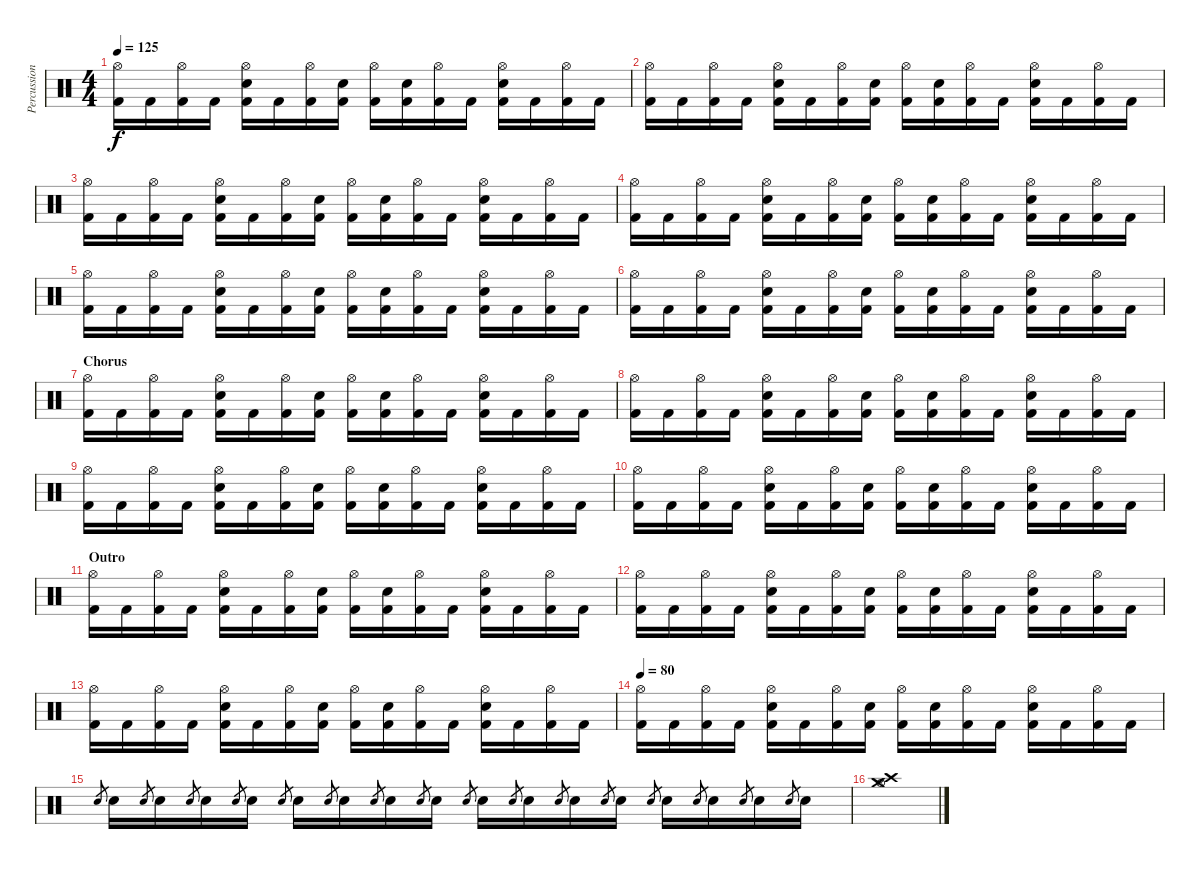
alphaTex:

\track ("Percussion" "Percussion") {instrument percussion}
\staff {score}
\articulation defaults
\ts (4 4)
\tempo 125
\clef neutral
\ks c
("Hi-Hat (open)" "Kick (hit) 2").16{dy f} "Kick (hit) 2".16 ("Hi-Hat (open)" "Kick (hit) 2").16 "Kick (hit) 2".16 ("Hi-Hat (open)" "Electric Snare (hit)" "Kick (hit) 2").16 "Kick (hit) 2".16 ("Hi-Hat (open)" "Kick (hit) 2").16 ("Snare (hit) 2" "Kick (hit) 2").16 ("Hi-Hat (open)" "Kick (hit) 2").16 ("Snare (hit) 2" "Kick (hit) 2").16 ("Hi-Hat (open)" "Kick (hit) 2").16 "Kick (hit) 2".16 ("Hi-Hat (open)" "Electric Snare (hit)" "Kick (hit) 2").16 "Kick (hit) 2".16 ("Hi-Hat (open)" "Kick (hit) 2").16 "Kick (hit) 2".16 |
("Hi-Hat (open)" "Kick (hit) 2").16 "Kick (hit) 2".16 ("Hi-Hat (open)" "Kick (hit) 2").16 "Kick (hit) 2".16 ("Hi-Hat (open)" "Electric Snare (hit)" "Kick (hit) 2").16 "Kick (hit) 2".16 ("Hi-Hat (open)" "Kick (hit) 2").16 ("Snare (hit) 2" "Kick (hit) 2").16 ("Hi-Hat (open)" "Kick (hit) 2").16 ("Snare (hit) 2" "Kick (hit) 2").16 ("Hi-Hat (open)" "Kick (hit) 2").16 "Kick (hit) 2".16 ("Hi-Hat (open)" "Electric Snare (hit)" "Kick (hit) 2").16 "Kick (hit) 2".16 ("Hi-Hat (open)" "Kick (hit) 2").16 "Kick (hit) 2".16 |
("Hi-Hat (open)" "Kick (hit) 2").16 "Kick (hit) 2".16 ("Hi-Hat (open)" "Kick (hit) 2").16 "Kick (hit) 2".16 ("Hi-Hat (open)" "Electric Snare (hit)" "Kick (hit) 2").16 "Kick (hit) 2".16 ("Hi-Hat (open)" "Kick (hit) 2").16 ("Snare (hit) 2" "Kick (hit) 2").16 ("Hi-Hat (open)" "Kick (hit) 2").16 ("Snare (hit) 2" "Kick (hit) 2").16 ("Hi-Hat (open)" "Kick (hit) 2").16 "Kick (hit) 2".16 ("Hi-Hat (open)" "Electric Snare (hit)" "Kick (hit) 2").16 "Kick (hit) 2".16 ("Hi-Hat (open)" "Kick (hit) 2").16 "Kick (hit) 2".16 |
("Hi-Hat (open)" "Kick (hit) 2").16 "Kick (hit) 2".16 ("Hi-Hat (open)" "Kick (hit) 2").16 "Kick (hit) 2".16 ("Hi-Hat (open)" "Electric Snare (hit)" "Kick (hit) 2").16 "Kick (hit) 2".16 ("Hi-Hat (open)" "Kick (hit) 2").16 ("Snare (hit) 2" "Kick (hit) 2").16 ("Hi-Hat (open)" "Kick (hit) 2").16 ("Snare (hit) 2" "Kick (hit) 2").16 ("Hi-Hat (open)" "Kick (hit) 2").16 "Kick (hit) 2".16 ("Hi-Hat (open)" "Electric Snare (hit)" "Kick (hit) 2").16 "Kick (hit) 2".16 ("Hi-Hat (open)" "Kick (hit) 2").16 "Kick (hit) 2".16 |
("Hi-Hat (open)" "Kick (hit) 2").16 "Kick (hit) 2".16 ("Hi-Hat (open)" "Kick (hit) 2").16 "Kick (hit) 2".16 ("Hi-Hat (open)" "Electric Snare (hit)" "Kick (hit) 2").16 "Kick (hit) 2".16 ("Hi-Hat (open)" "Kick (hit) 2").16 ("Snare (hit) 2" "Kick (hit) 2").16 ("Hi-Hat (open)" "Kick (hit) 2").16 ("Snare (hit) 2" "Kick (hit) 2").16 ("Hi-Hat (open)" "Kick (hit) 2").16 "Kick (hit) 2".16 ("Hi-Hat (open)" "Electric Snare (hit)" "Kick (hit) 2").16 "Kick (hit) 2".16 ("Hi-Hat (open)" "Kick (hit) 2").16 "Kick (hit) 2".16 |
("Hi-Hat (open)" "Kick (hit) 2").16 "Kick (hit) 2".16 ("Hi-Hat (open)" "Kick (hit) 2").16 "Kick (hit) 2".16 ("Hi-Hat (open)" "Electric Snare (hit)" "Kick (hit) 2").16 "Kick (hit) 2".16 ("Hi-Hat (open)" "Kick (hit) 2").16 ("Snare (hit) 2" "Kick (hit) 2").16 ("Hi-Hat (open)" "Kick (hit) 2").16 ("Snare (hit) 2" "Kick (hit) 2").16 ("Hi-Hat (open)" "Kick (hit) 2").16 "Kick (hit) 2".16 ("Hi-Hat (open)" "Electric Snare (hit)" "Kick (hit) 2").16 "Kick (hit) 2".16 ("Hi-Hat (open)" "Kick (hit) 2").16 "Kick (hit) 2".16 |
\section ("" "Chorus")
("Hi-Hat (open)" "Kick (hit) 2").16 "Kick (hit) 2".16 ("Hi-Hat (open)" "Kick (hit) 2").16 "Kick (hit) 2".16 ("Hi-Hat (open)" "Electric Snare (hit)" "Kick (hit) 2").16 "Kick (hit) 2".16 ("Hi-Hat (open)" "Kick (hit) 2").16 ("Snare (hit) 2" "Kick (hit) 2").16 ("Hi-Hat (open)" "Kick (hit) 2").16 ("Snare (hit) 2" "Kick (hit) 2").16 ("Hi-Hat (open)" "Kick (hit) 2").16 "Kick (hit) 2".16 ("Hi-Hat (open)" "Electric Snare (hit)" "Kick (hit) 2").16 "Kick (hit) 2".16 ("Hi-Hat (open)" "Kick (hit) 2").16 "Kick (hit) 2".16 |
("Hi-Hat (open)" "Kick (hit) 2").16 "Kick (hit) 2".16 ("Hi-Hat (open)" "Kick (hit) 2").16 "Kick (hit) 2".16 ("Hi-Hat (open)" "Electric Snare (hit)" "Kick (hit) 2").16 "Kick (hit) 2".16 ("Hi-Hat (open)" "Kick (hit) 2").16 ("Snare (hit) 2" "Kick (hit) 2").16 ("Hi-Hat (open)" "Kick (hit) 2").16 ("Snare (hit) 2" "Kick (hit) 2").16 ("Hi-Hat (open)" "Kick (hit) 2").16 "Kick (hit) 2".16 ("Hi-Hat (open)" "Electric Snare (hit)" "Kick (hit) 2").16 "Kick (hit) 2".16 ("Hi-Hat (open)" "Kick (hit) 2").16 "Kick (hit) 2".16 |
("Hi-Hat (open)" "Kick (hit) 2").16 "Kick (hit) 2".16 ("Hi-Hat (open)" "Kick (hit) 2").16 "Kick (hit) 2".16 ("Hi-Hat (open)" "Electric Snare (hit)" "Kick (hit) 2").16 "Kick (hit) 2".16 ("Hi-Hat (open)" "Kick (hit) 2").16 ("Snare (hit) 2" "Kick (hit) 2").16 ("Hi-Hat (open)" "Kick (hit) 2").16 ("Snare (hit) 2" "Kick (hit) 2").16 ("Hi-Hat (open)" "Kick (hit) 2").16 "Kick (hit) 2".16 ("Hi-Hat (open)" "Electric Snare (hit)" "Kick (hit) 2").16 "Kick (hit) 2".16 ("Hi-Hat (open)" "Kick (hit) 2").16 "Kick (hit) 2".16 |
("Hi-Hat (open)" "Kick (hit) 2").16 "Kick (hit) 2".16 ("Hi-Hat (open)" "Kick (hit) 2").16 "Kick (hit) 2".16 ("Hi-Hat (open)" "Electric Snare (hit)" "Kick (hit) 2").16 "Kick (hit) 2".16 ("Hi-Hat (open)" "Kick (hit) 2").16 ("Snare (hit) 2" "Kick (hit) 2").16 ("Hi-Hat (open)" "Kick (hit) 2").16 ("Snare (hit) 2" "Kick (hit) 2").16 ("Hi-Hat (open)" "Kick (hit) 2").16 "Kick (hit) 2".16 ("Hi-Hat (open)" "Electric Snare (hit)" "Kick (hit) 2").16 "Kick (hit) 2".16 ("Hi-Hat (open)" "Kick (hit) 2").16 "Kick (hit) 2".16 |
\section ("" "Outro")
("Hi-Hat (open)" "Kick (hit) 2").16 "Kick (hit) 2".16 ("Hi-Hat (open)" "Kick (hit) 2").16 "Kick (hit) 2".16 ("Hi-Hat (open)" "Electric Snare (hit)" "Kick (hit) 2").16 "Kick (hit) 2".16 ("Hi-Hat (open)" "Kick (hit) 2").16 ("Snare (hit) 2" "Kick (hit) 2").16 ("Hi-Hat (open)" "Kick (hit) 2").16 ("Snare (hit) 2" "Kick (hit) 2").16 ("Hi-Hat (open)" "Kick (hit) 2").16 "Kick (hit) 2".16 ("Hi-Hat (open)" "Electric Snare (hit)" "Kick (hit) 2").16 "Kick (hit) 2".16 ("Hi-Hat (open)" "Kick (hit) 2").16 "Kick (hit) 2".16 |
("Hi-Hat (open)" "Kick (hit) 2").16 "Kick (hit) 2".16 ("Hi-Hat (open)" "Kick (hit) 2").16 "Kick (hit) 2".16 ("Hi-Hat (open)" "Electric Snare (hit)" "Kick (hit) 2").16 "Kick (hit) 2".16 ("Hi-Hat (open)" "Kick (hit) 2").16 ("Snare (hit) 2" "Kick (hit) 2").16 ("Hi-Hat (open)" "Kick (hit) 2").16 ("Snare (hit) 2" "Kick (hit) 2").16 ("Hi-Hat (open)" "Kick (hit) 2").16 "Kick (hit) 2".16 ("Hi-Hat (open)" "Electric Snare (hit)" "Kick (hit) 2").16 "Kick (hit) 2".16 ("Hi-Hat (open)" "Kick (hit) 2").16 "Kick (hit) 2".16 |
("Hi-Hat (open)" "Kick (hit) 2").16 "Kick (hit) 2".16 ("Hi-Hat (open)" "Kick (hit) 2").16 "Kick (hit) 2".16 ("Hi-Hat (open)" "Electric Snare (hit)" "Kick (hit) 2").16 "Kick (hit) 2".16 ("Hi-Hat (open)" "Kick (hit) 2").16 ("Snare (hit) 2" "Kick (hit) 2").16 ("Hi-Hat (open)" "Kick (hit) 2").16 ("Snare (hit) 2" "Kick (hit) 2").16 ("Hi-Hat (open)" "Kick (hit) 2").16 "Kick (hit) 2".16 ("Hi-Hat (open)" "Electric Snare (hit)" "Kick (hit) 2").16 "Kick (hit) 2".16 ("Hi-Hat (open)" "Kick (hit) 2").16 "Kick (hit) 2".16 |
\tempo 80
("Hi-Hat (open)" "Kick (hit) 2").16 "Kick (hit) 2".16 ("Hi-Hat (open)" "Kick (hit) 2").16 "Kick (hit) 2".16 ("Hi-Hat (open)" "Electric Snare (hit)" "Kick (hit) 2").16 "Kick (hit) 2".16 ("Hi-Hat (open)" "Kick (hit) 2").16 ("Snare (hit) 2" "Kick (hit) 2").16 ("Hi-Hat (open)" "Kick (hit) 2").16 ("Snare (hit) 2" "Kick (hit) 2").16 ("Hi-Hat (open)" "Kick (hit) 2").16 "Kick (hit) 2".16 ("Hi-Hat (open)" "Electric Snare (hit)" "Kick (hit) 2").16 "Kick (hit) 2".16 ("Hi-Hat (open)" "Kick (hit) 2").16 "Kick (hit) 2".16 |
"Snare (hit) 2".8{gr} "Snare (hit) 2".16 "Snare (hit) 2".8{gr} "Snare (hit) 2".16 "Electric Snare (hit)".8{gr} "Electric Snare (hit)".16 "Electric Snare (hit)".8{gr} "Electric Snare (hit)".16 "Snare (hit) 2".8{gr} "Snare (hit) 2".16 "Snare (hit) 2".8{gr} "Snare (hit) 2".16 "Electric Snare (hit)".8{gr} "Electric Snare (hit)".16 "Electric Snare (hit)".8{gr} "Electric Snare (hit)".16 "Snare (hit) 2".8{gr} "Snare (hit) 2".16 "Snare (hit) 2".8{gr} "Snare (hit) 2".16 "Electric Snare (hit)".8{gr} "Electric Snare (hit)".16 "Electric Snare (hit)".8{gr} "Electric Snare (hit)".16 "Snare (hit) 2".8{gr} "Snare (hit) 2".16 "Snare (hit) 2".8{gr} "Snare (hit) 2".16 "Electric Snare (hit)".8{gr} "Electric Snare (hit)".16 "Electric Snare (hit)".8{gr} "Electric Snare (hit)".16 |
("Hi-Hat (open)" "Crash high (hit)" "Crash medium (hit)").1
